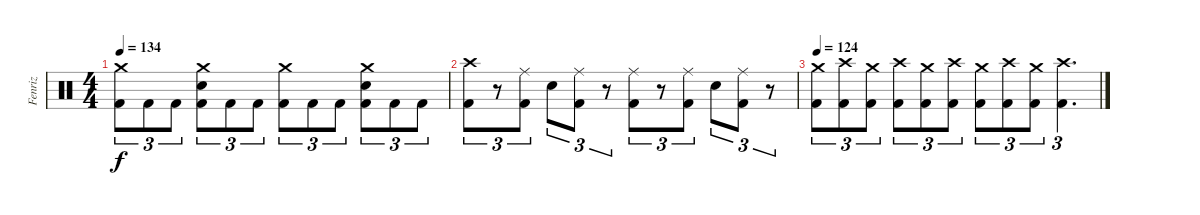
\track ("Fenriz" "Fenriz") {instrument percussion}
\staff {score}
\articulation defaults
\ts (4 4)
\tempo 134
\clef neutral
\ks c
("Crash medium (hit)" "Kick (hit) 2").8{tu (3 2) dy f} "Kick (hit) 2".8{tu (3 2)} "Kick (hit) 2".8{tu (3 2)} ("Crash medium (hit)" "Snare (hit) 2" "Kick (hit) 2").8{tu (3 2)} "Kick (hit) 2".8{tu (3 2)} "Kick (hit) 2".8{tu (3 2)} ("Crash medium (hit)" "Kick (hit) 2").8{tu (3 2)} "Kick (hit) 2".8{tu (3 2)} "Kick (hit) 2".8{tu (3 2)} ("Crash medium (hit)" "Snare (hit) 2" "Kick (hit) 2").8{tu (3 2)} "Kick (hit) 2".8{tu (3 2)} "Kick (hit) 2".8{tu (3 2)} |
("Crash high (hit)" "Kick (hit) 2").8{tu (3 2)} r.8{tu (3 2)} ("Ride (middle)" "Kick (hit) 2").8{tu (3 2)} "Snare (hit) 2".8{tu (3 2)} ("Ride (middle)" "Kick (hit) 2").8{tu (3 2)} r.8{tu (3 2)} ("Ride (middle)" "Kick (hit) 2").8{tu (3 2)} r.8{tu (3 2)} ("Ride (middle)" "Kick (hit) 2").8{tu (3 2)} "Snare (hit) 2".8{tu (3 2)} ("Ride (middle)" "Kick (hit) 2").8{tu (3 2)} r.8{tu (3 2)} |
\tempo 124
("Crash medium (hit)" "Kick (hit) 2").8{tu (3 2)} ("Crash high (hit)" "Kick (hit) 2").8{tu (3 2)} ("Crash medium (hit)" "Kick (hit) 2").8{tu (3 2)} ("Crash high (hit)" "Kick (hit) 2").8{tu (3 2)} ("Crash medium (hit)" "Kick (hit) 2").8{tu (3 2)} ("Crash high (hit)" "Kick (hit) 2").8{tu (3 2)} ("Crash medium (hit)" "Kick (hit) 2").8{tu (3 2)} ("Crash high (hit)" "Kick (hit) 2").8{tu (3 2)} ("Crash medium (hit)" "Kick (hit) 2").8{tu (3 2)} ("Crash high (hit)" "Kick (hit) 2").4{d tu (3 2)}
